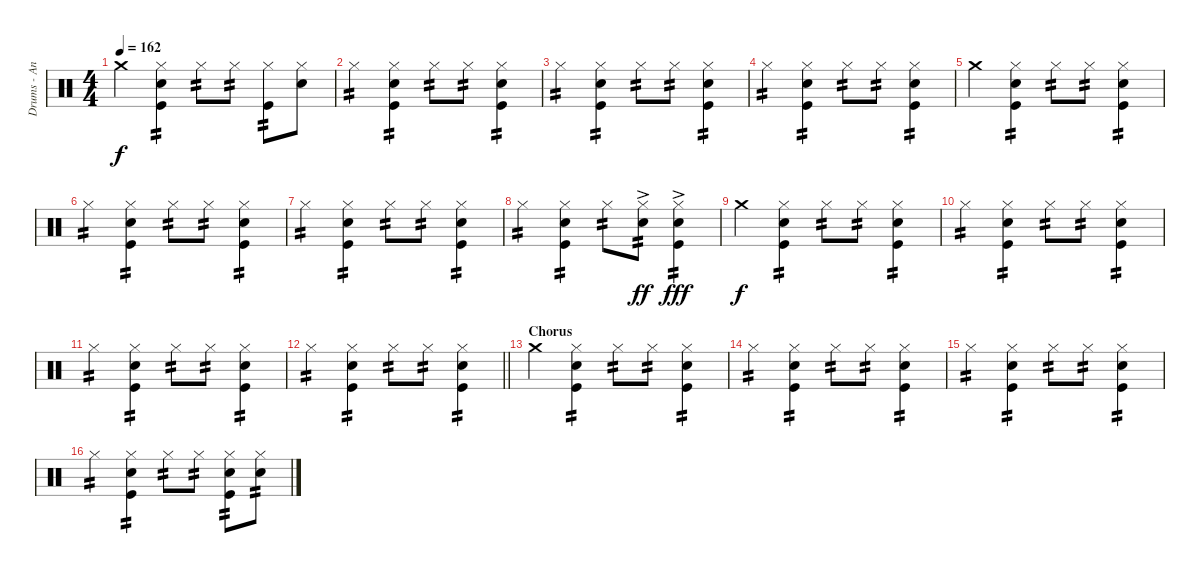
\track ("Drums - Andriushkin" "Drums - An") {instrument percussion}
\staff {score}
\articulation defaults
\ts (4 4)
\tempo 162
\clef neutral
\ks c "Crash medium (hit)".4{dy f}
("Hi-Hat (closed)" "Electric Snare (hit)" "Kick (hit)").4{tp 2} "Hi-Hat (closed)".8{tp 2} "Hi-Hat (closed)".8{tp 2} ("Hi-Hat (closed)" "Kick (hit)").8{tp 2} ("Hi-Hat (closed)" "Electric Snare (hit)").8 |
"Hi-Hat (closed)".4{tp 2} ("Hi-Hat (closed)" "Electric Snare (hit)" "Kick (hit)").4{tp 2} "Hi-Hat (closed)".8{tp 2} "Hi-Hat (closed)".8{tp 2} ("Hi-Hat (closed)" "Electric Snare (hit)" "Kick (hit)").4{tp 2} |
"Hi-Hat (closed)".4{tp 2} ("Hi-Hat (closed)" "Electric Snare (hit)" "Kick (hit)").4{tp 2} "Hi-Hat (closed)".8{tp 2} "Hi-Hat (closed)".8{tp 2} ("Hi-Hat (closed)" "Electric Snare (hit)" "Kick (hit)").4{tp 2} |
"Hi-Hat (closed)".4{tp 2} ("Hi-Hat (closed)" "Electric Snare (hit)" "Kick (hit)").4{tp 2} "Hi-Hat (closed)".8{tp 2} "Hi-Hat (closed)".8{tp 2} ("Hi-Hat (closed)" "Electric Snare (hit)" "Kick (hit)").4{tp 2} |
"Crash medium (hit)".4 ("Hi-Hat (closed)" "Electric Snare (hit)" "Kick (hit)").4{tp 2} "Hi-Hat (closed)".8{tp 2} "Hi-Hat (closed)".8{tp 2} ("Hi-Hat (closed)" "Electric Snare (hit)" "Kick (hit)").4{tp 2} |
"Hi-Hat (closed)".4{tp 2} ("Hi-Hat (closed)" "Electric Snare (hit)" "Kick (hit)").4{tp 2} "Hi-Hat (closed)".8{tp 2} "Hi-Hat (closed)".8{tp 2} ("Hi-Hat (closed)" "Electric Snare (hit)" "Kick (hit)").4{tp 2} |
"Hi-Hat (closed)".4{tp 2} ("Hi-Hat (closed)" "Electric Snare (hit)" "Kick (hit)").4{tp 2} "Hi-Hat (closed)".8{tp 2} "Hi-Hat (closed)".8{tp 2} ("Hi-Hat (closed)" "Electric Snare (hit)" "Kick (hit)").4{tp 2} |
"Hi-Hat (closed)".4{tp 2} ("Hi-Hat (closed)" "Electric Snare (hit)" "Kick (hit)").4{tp 2} "Hi-Hat (closed)".8{tp 2} ("Hi-Hat (closed)" "Electric Snare (hit)"{ac}).8{tp 2 dy ff} ("Hi-Hat (closed)" "Electric Snare (hit)"{ac} "Kick (hit)").4{tp 2 dy fff} |
"Crash medium (hit)".4{dy f} ("Hi-Hat (closed)" "Electric Snare (hit)" "Kick (hit)").4{tp 2} "Hi-Hat (closed)".8{tp 2} "Hi-Hat (closed)".8{tp 2} ("Hi-Hat (closed)" "Electric Snare (hit)" "Kick (hit)").4{tp 2} |
"Hi-Hat (closed)".4{tp 2} ("Hi-Hat (closed)" "Electric Snare (hit)" "Kick (hit)").4{tp 2} "Hi-Hat (closed)".8{tp 2} "Hi-Hat (closed)".8{tp 2} ("Hi-Hat (closed)" "Electric Snare (hit)" "Kick (hit)").4{tp 2} |
"Hi-Hat (closed)".4{tp 2} ("Hi-Hat (closed)" "Electric Snare (hit)" "Kick (hit)").4{tp 2} "Hi-Hat (closed)".8{tp 2} "Hi-Hat (closed)".8{tp 2} ("Hi-Hat (closed)" "Electric Snare (hit)" "Kick (hit)").4{tp 2} |
\barLineRight lightlight "Hi-Hat (closed)".4{tp 2}
("Hi-Hat (closed)" "Electric Snare (hit)" "Kick (hit)").4{tp 2} "Hi-Hat (closed)".8{tp 2} "Hi-Hat (closed)".8{tp 2} ("Hi-Hat (closed)" "Electric Snare (hit)" "Kick (hit)").4{tp 2} |
\section ("" "Chorus")
"Crash medium (hit)".4 ("Hi-Hat (closed)" "Electric Snare (hit)" "Kick (hit)").4{tp 2} "Hi-Hat (closed)".8{tp 2} "Hi-Hat (closed)".8{tp 2} ("Hi-Hat (closed)" "Electric Snare (hit)" "Kick (hit)").4{tp 2} |
"Hi-Hat (closed)".4{tp 2} ("Hi-Hat (closed)" "Electric Snare (hit)" "Kick (hit)").4{tp 2} "Hi-Hat (closed)".8{tp 2} "Hi-Hat (closed)".8{tp 2} ("Hi-Hat (closed)" "Electric Snare (hit)" "Kick (hit)").4{tp 2} |
"Hi-Hat (closed)".4{tp 2} ("Hi-Hat (closed)" "Electric Snare (hit)" "Kick (hit)").4{tp 2} "Hi-Hat (closed)".8{tp 2} "Hi-Hat (closed)".8{tp 2} ("Hi-Hat (closed)" "Electric Snare (hit)" "Kick (hit)").4{tp 2} |
"Hi-Hat (closed)".4{tp 2} ("Hi-Hat (closed)" "Electric Snare (hit)" "Kick (hit)").4{tp 2} "Hi-Hat (closed)".8{tp 2} "Hi-Hat (closed)".8{tp 2} ("Hi-Hat (closed)" "Electric Snare (hit)" "Kick (hit)").8{tp 2} ("Hi-Hat (closed)" "Electric Snare (hit)").8{tp 2}
